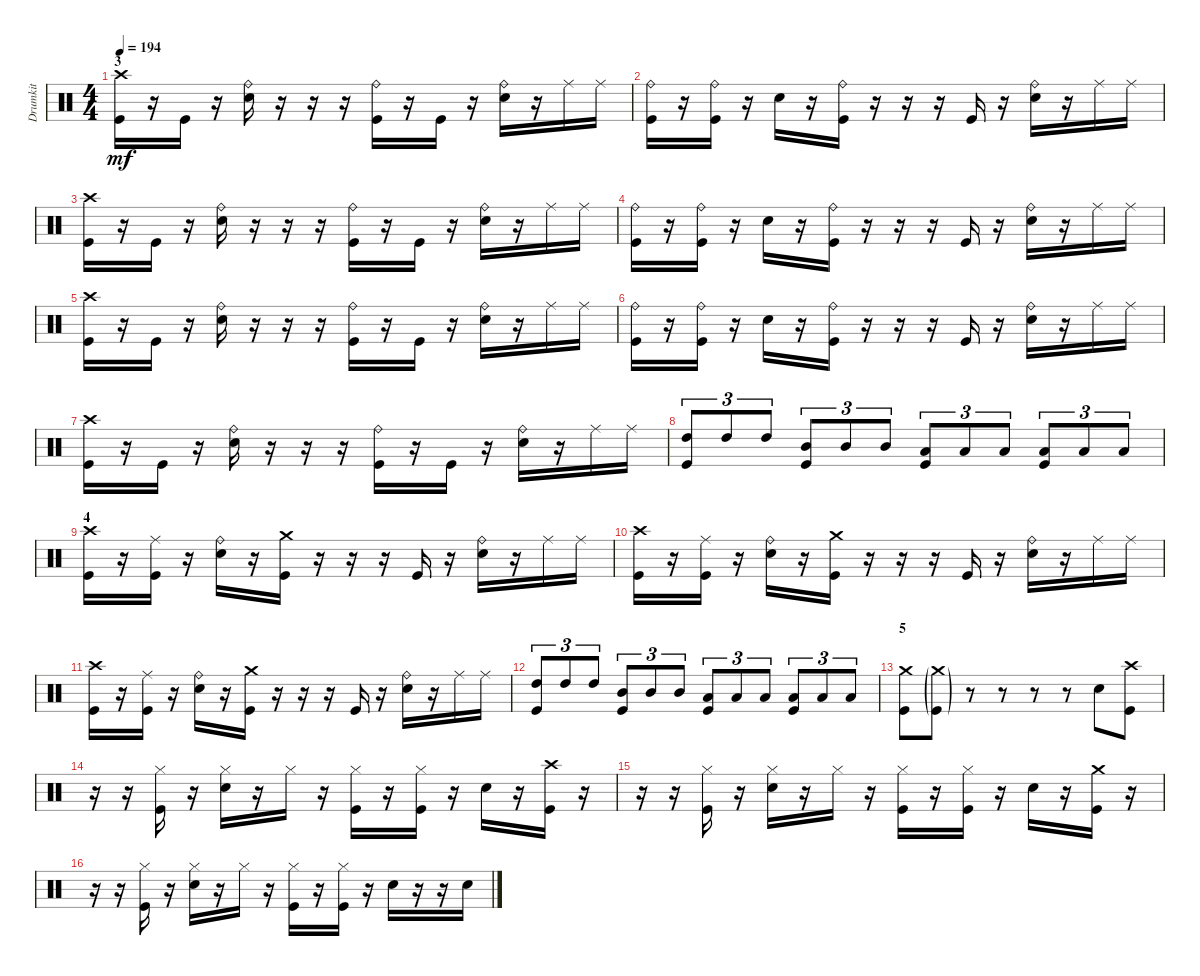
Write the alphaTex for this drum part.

\track ("Drumkit" "Drumkit") {instrument percussion}
\staff {score}
\articulation defaults
\ts (4 4)
\section ("" "3")
\tempo 194
\clef neutral
\ks c
("Kick (hit)" "Crash high (hit)").16{dy mf} r.16 "Kick (hit)".16 r.16 ("Snare (hit) 2" "Ride (bell)").16 r.16 r.16 r.16 ("Ride (bell)" "Kick (hit)").16 r.16 "Kick (hit)".16 r.16 ("Ride (bell)" "Snare (hit) 2").16 r.16 "Ride (middle)".16 "Ride (middle)".16 |
("Kick (hit)" "Ride (bell)").16 r.16 ("Kick (hit)" "Ride (bell)").16 r.16 "Snare (hit) 2".16 r.16 ("Kick (hit)" "Ride (bell)").16 r.16 r.16 r.16 "Kick (hit)".16 r.16 ("Snare (hit) 2" "Ride (bell)").16 r.16 "Ride (middle)".16 "Ride (middle)".16 |
("Kick (hit)" "Crash high (hit)").16 r.16 "Kick (hit)".16 r.16 ("Snare (hit) 2" "Ride (bell)").16 r.16 r.16 r.16 ("Ride (bell)" "Kick (hit)").16 r.16 "Kick (hit)".16 r.16 ("Ride (bell)" "Snare (hit) 2").16 r.16 "Ride (middle)".16 "Ride (middle)".16 |
("Kick (hit)" "Ride (bell)").16 r.16 ("Kick (hit)" "Ride (bell)").16 r.16 "Snare (hit) 2".16 r.16 ("Kick (hit)" "Ride (bell)").16 r.16 r.16 r.16 "Kick (hit)".16 r.16 ("Snare (hit) 2" "Ride (bell)").16 r.16 "Ride (middle)".16 "Ride (middle)".16 |
("Kick (hit)" "Crash high (hit)").16 r.16 "Kick (hit)".16 r.16 ("Snare (hit) 2" "Ride (bell)").16 r.16 r.16 r.16 ("Ride (bell)" "Kick (hit)").16 r.16 "Kick (hit)".16 r.16 ("Ride (bell)" "Snare (hit) 2").16 r.16 "Ride (middle)".16 "Ride (middle)".16 |
("Kick (hit)" "Ride (bell)").16 r.16 ("Kick (hit)" "Ride (bell)").16 r.16 "Snare (hit) 2".16 r.16 ("Kick (hit)" "Ride (bell)").16 r.16 r.16 r.16 "Kick (hit)".16 r.16 ("Snare (hit) 2" "Ride (bell)").16 r.16 "Ride (middle)".16 "Ride (middle)".16 |
("Kick (hit)" "Crash high (hit)").16 r.16 "Kick (hit)".16 r.16 ("Snare (hit) 2" "Ride (bell)").16 r.16 r.16 r.16 ("Ride (bell)" "Kick (hit)").16 r.16 "Kick (hit)".16 r.16 ("Ride (bell)" "Snare (hit) 2").16 r.16 "Ride (middle)".16 "Ride (middle)".16 |
("High Tom (hit)" "Kick (hit)").8{tu (3 2)} "High Tom (hit)".8{tu (3 2)} "High Tom (hit)".8{tu (3 2)} ("Mid Tom (hit)" "Kick (hit)").8{tu (3 2)} "Mid Tom (hit)".8{tu (3 2)} "Mid Tom (hit)".8{tu (3 2)} ("Low Tom (hit)" "Kick (hit)").8{tu (3 2)} "Low Tom (hit)".8{tu (3 2)} "Low Tom (hit)".8{tu (3 2)} ("Low Floor Tom (hit)" "Kick (hit)").8{tu (3 2)} "Low Floor Tom (hit)".8{tu (3 2)} "Low Floor Tom (hit)".8{tu (3 2)} |
\section ("" "4")
("Kick (hit)" "Crash high (hit)").16 r.16 ("Kick (hit)" "Ride (middle)").16 r.16 ("Snare (hit) 2" "Ride (bell)").16 r.16 ("Kick (hit)" "Crash medium (hit)").16 r.16 r.16 r.16 "Kick (hit)".16 r.16 ("Ride (bell)" "Snare (hit) 2").16 r.16 "Ride (middle)".16 "Ride (middle)".16 |
("Kick (hit)" "Crash high (hit)").16 r.16 ("Kick (hit)" "Ride (middle)").16 r.16 ("Snare (hit) 2" "Ride (bell)").16 r.16 ("Kick (hit)" "Crash medium (hit)").16 r.16 r.16 r.16 "Kick (hit)".16 r.16 ("Ride (bell)" "Snare (hit) 2").16 r.16 "Ride (middle)".16 "Ride (middle)".16 |
("Kick (hit)" "Crash high (hit)").16 r.16 ("Kick (hit)" "Ride (middle)").16 r.16 ("Snare (hit) 2" "Ride (bell)").16 r.16 ("Kick (hit)" "Crash medium (hit)").16 r.16 r.16 r.16 "Kick (hit)".16 r.16 ("Ride (bell)" "Snare (hit) 2").16 r.16 "Ride (middle)".16 "Ride (middle)".16 |
("High Tom (hit)" "Kick (hit)").8{tu (3 2)} "High Tom (hit)".8{tu (3 2)} "High Tom (hit)".8{tu (3 2)} ("Mid Tom (hit)" "Kick (hit)").8{tu (3 2)} "Mid Tom (hit)".8{tu (3 2)} "Mid Tom (hit)".8{tu (3 2)} ("Low Tom (hit)" "Kick (hit)").8{tu (3 2)} "Low Tom (hit)".8{tu (3 2)} "Low Tom (hit)".8{tu (3 2)} ("Low Floor Tom (hit)" "Kick (hit)").8{tu (3 2)} "Low Floor Tom (hit)".8{tu (3 2)} "Low Floor Tom (hit)".8{tu (3 2)} |
\section ("" "5")
("Kick (hit)" "Crash medium (hit)").8 ("Kick (hit)"{g} "Crash medium (hit)"{g}).8 r.8 r.8 r.8 r.8 "Snare (hit) 2".8 ("Kick (hit)" "Crash high (hit)").8 |
r.16 r.16 ("Kick (hit)" "Hi-Hat (closed)").16 r.16 ("Snare (hit) 2" "Hi-Hat (closed)").16 r.16 "Hi-Hat (closed)".16 r.16 ("Kick (hit)" "Hi-Hat (closed)").16 r.16 ("Kick (hit)" "Hi-Hat (closed)").16 r.16 "Snare (hit) 2".16 r.16 ("Kick (hit)" "Crash high (hit)").16 r.16 |
r.16 r.16 ("Kick (hit)" "Hi-Hat (closed)").16 r.16 ("Snare (hit) 2" "Hi-Hat (closed)").16 r.16 "Hi-Hat (closed)".16 r.16 ("Kick (hit)" "Hi-Hat (closed)").16 r.16 ("Kick (hit)" "Hi-Hat (closed)").16 r.16 "Snare (hit) 2".16 r.16 ("Kick (hit)" "Crash medium (hit)").16 r.16 |
r.16 r.16 ("Kick (hit)" "Hi-Hat (closed)").16 r.16 ("Snare (hit) 2" "Hi-Hat (closed)").16 r.16 "Hi-Hat (closed)".16 r.16 ("Kick (hit)" "Hi-Hat (closed)").16 r.16 ("Kick (hit)" "Hi-Hat (closed)").16 r.16 "Snare (hit) 2".16 r.16 r.16 "Snare (hit) 2".16
